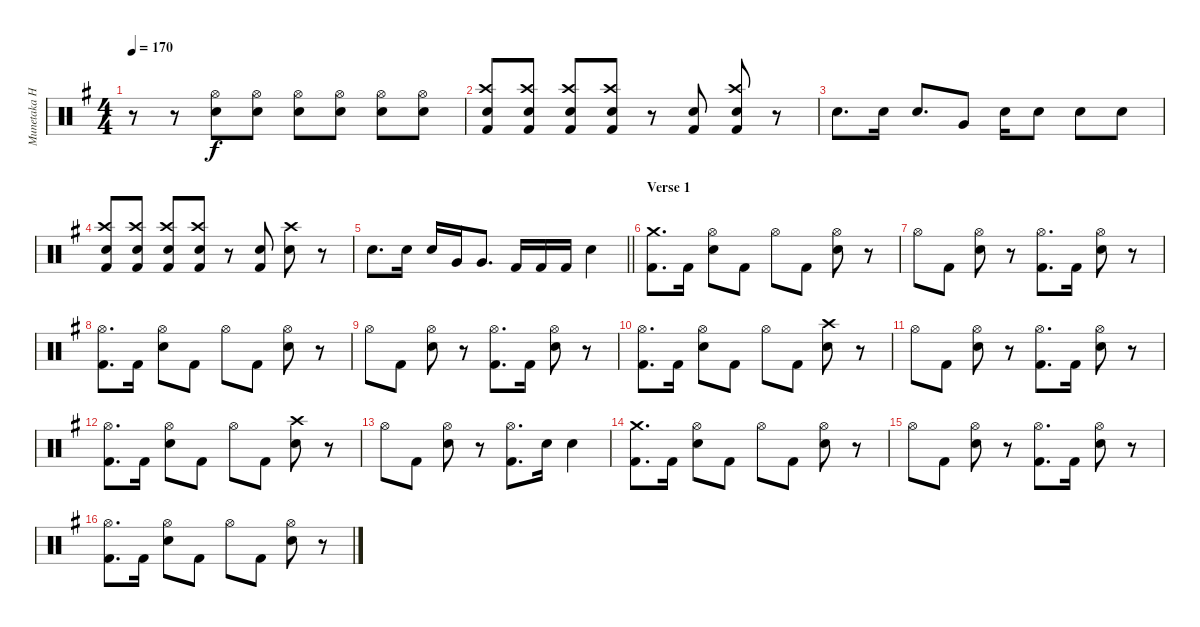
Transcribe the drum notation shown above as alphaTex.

\track ("Munetaka Higuchi" "Munetaka H") {instrument percussion}
\staff {score}
\articulation defaults
\ts (4 4)
\tempo 170
\clef neutral
\ks eminor
r.8{dy f} r.8 ("Hi-Hat (open)" "Electric Snare (hit)").8 ("Hi-Hat (open)" "Electric Snare (hit)").8 ("Hi-Hat (open)" "Electric Snare (hit)").8 ("Hi-Hat (open)" "Electric Snare (hit)").8 ("Hi-Hat (open)" "Electric Snare (hit)").8 ("Hi-Hat (open)" "Electric Snare (hit)").8 |
("Crash high (hit)" "Electric Snare (hit)" "Kick (hit) 2").8 ("Crash high (hit)" "Electric Snare (hit)" "Kick (hit) 2").8 ("Crash high (hit)" "Electric Snare (hit)" "Kick (hit) 2").8 ("Crash high (hit)" "Electric Snare (hit)" "Kick (hit) 2").8 r.8 ("Electric Snare (hit)" "Kick (hit) 2").8 ("Crash high (hit)" "Electric Snare (hit)" "Kick (hit) 2").8 r.8 |
"Electric Snare (hit)".8{d} "Electric Snare (hit)".16 "Electric Snare (hit)".8{d} "Very Low Tom (hit)".8 "Electric Snare (hit)".16 "Electric Snare (hit)".8 "Electric Snare (hit)".8 "Electric Snare (hit)".8 |
("Crash high (hit)" "Electric Snare (hit)" "Kick (hit) 2").8 ("Crash high (hit)" "Electric Snare (hit)" "Kick (hit) 2").8 ("Crash high (hit)" "Electric Snare (hit)" "Kick (hit) 2").8 ("Crash high (hit)" "Electric Snare (hit)" "Kick (hit) 2").8 r.8 ("Electric Snare (hit)" "Kick (hit) 2").8 ("Crash high (hit)" "Electric Snare (hit)").8 r.8 |
\barLineRight lightlight "Electric Snare (hit)".8{d} "Electric Snare (hit)".16 "Electric Snare (hit)".16 "Very Low Tom (hit)".16 "Very Low Tom (hit)".8{d} "Kick (hit) 2".16 "Kick (hit) 2".16 "Kick (hit) 2".16 "Electric Snare (hit)".4
|
\section ("" "Verse 1")
("Crash medium (hit)" "Kick (hit) 2").8{d} "Kick (hit) 2".16 ("Hi-Hat (open)" "Electric Snare (hit)").8 "Kick (hit) 2".8 "Hi-Hat (open)".8 "Kick (hit) 2".8 ("Hi-Hat (open)" "Electric Snare (hit)").8 r.8 |
"Hi-Hat (open)".8 "Kick (hit) 2".8 ("Hi-Hat (open)" "Electric Snare (hit)").8 r.8 ("Hi-Hat (open)" "Kick (hit) 2").8{d} "Kick (hit) 2".16 ("Hi-Hat (open)" "Electric Snare (hit)").8 r.8 |
("Hi-Hat (open)" "Kick (hit) 2").8{d} "Kick (hit) 2".16 ("Hi-Hat (open)" "Electric Snare (hit)").8 "Kick (hit) 2".8 "Hi-Hat (open)".8 "Kick (hit) 2".8 ("Hi-Hat (open)" "Electric Snare (hit)").8 r.8 |
"Hi-Hat (open)".8 "Kick (hit) 2".8 ("Hi-Hat (open)" "Electric Snare (hit)").8 r.8 ("Hi-Hat (open)" "Kick (hit) 2").8{d} "Kick (hit) 2".16 ("Hi-Hat (open)" "Electric Snare (hit)").8 r.8 |
("Hi-Hat (open)" "Kick (hit) 2").8{d} "Kick (hit) 2".16 ("Hi-Hat (open)" "Electric Snare (hit)").8 "Kick (hit) 2".8 "Hi-Hat (open)".8 "Kick (hit) 2".8 ("Crash high (hit)" "Electric Snare (hit)").8 r.8 |
"Hi-Hat (open)".8 "Kick (hit) 2".8 ("Hi-Hat (open)" "Electric Snare (hit)").8 r.8 ("Hi-Hat (open)" "Kick (hit) 2").8{d} "Kick (hit) 2".16 ("Hi-Hat (open)" "Electric Snare (hit)").8 r.8 |
("Hi-Hat (open)" "Kick (hit) 2").8{d} "Kick (hit) 2".16 ("Hi-Hat (open)" "Electric Snare (hit)").8 "Kick (hit) 2".8 "Hi-Hat (open)".8 "Kick (hit) 2".8 ("Crash high (hit)" "Electric Snare (hit)").8 r.8 |
"Hi-Hat (open)".8 "Kick (hit) 2".8 ("Hi-Hat (open)" "Electric Snare (hit)").8 r.8 ("Hi-Hat (open)" "Kick (hit) 2").8{d} "Electric Snare (hit)".16 "Electric Snare (hit)".4 |
("Crash medium (hit)" "Kick (hit) 2").8{d} "Kick (hit) 2".16 ("Hi-Hat (open)" "Electric Snare (hit)").8 "Kick (hit) 2".8 "Hi-Hat (open)".8 "Kick (hit) 2".8 ("Hi-Hat (open)" "Electric Snare (hit)").8 r.8 |
"Hi-Hat (open)".8 "Kick (hit) 2".8 ("Hi-Hat (open)" "Electric Snare (hit)").8 r.8 ("Hi-Hat (open)" "Kick (hit) 2").8{d} "Kick (hit) 2".16 ("Hi-Hat (open)" "Electric Snare (hit)").8 r.8 |
("Hi-Hat (open)" "Kick (hit) 2").8{d} "Kick (hit) 2".16 ("Hi-Hat (open)" "Electric Snare (hit)").8 "Kick (hit) 2".8 "Hi-Hat (open)".8 "Kick (hit) 2".8 ("Hi-Hat (open)" "Electric Snare (hit)").8 r.8
